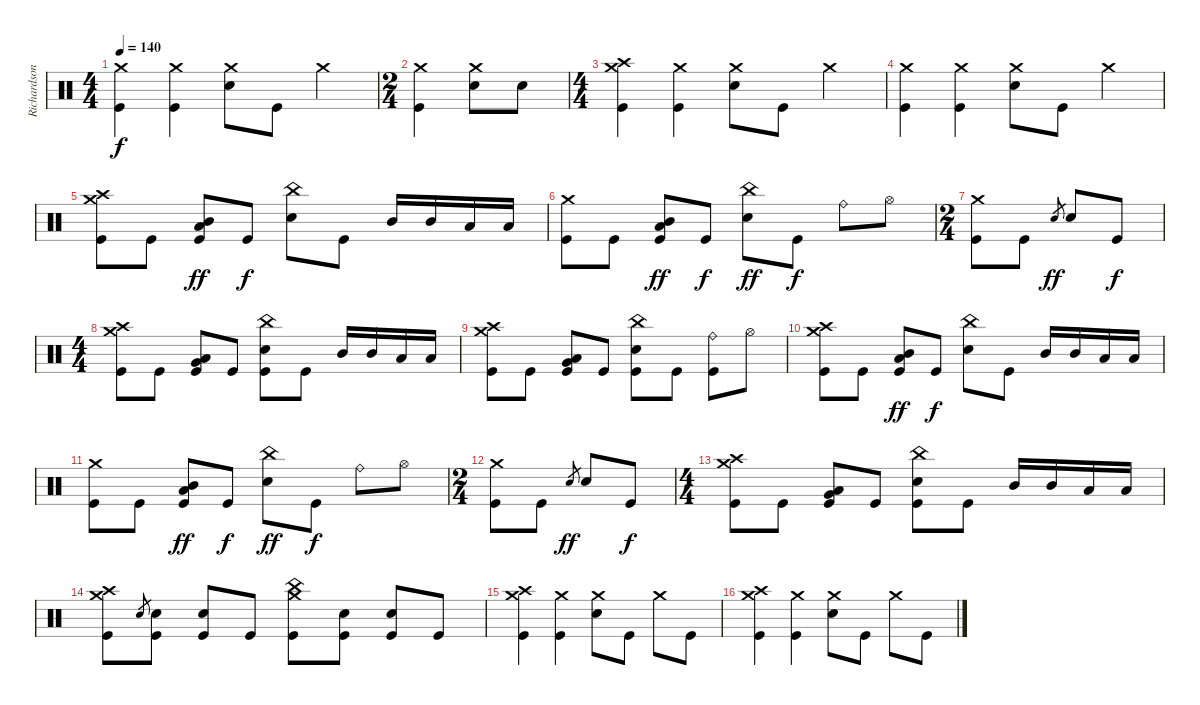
\track ("Richardson" "Richardson") {instrument percussion}
\staff {score}
\articulation defaults
\ts (4 4)
\tempo 140
\clef neutral
\ks c
("Crash medium (hit)" "Kick (hit)").4{dy f} ("Crash medium (hit)" "Kick (hit)").4 ("Crash medium (hit)" "Electric Snare (hit)").8 "Kick (hit)".8 "Crash medium (hit)".4 |
\ts (2 4)
("Crash medium (hit)" "Kick (hit)").4 ("Crash medium (hit)" "Electric Snare (hit)").8 "Electric Snare (hit)".8 |
\ts (4 4)
("Crash high (hit)" "Crash medium (hit)" "Kick (hit)").4 ("Crash medium (hit)" "Kick (hit)").4 ("Crash medium (hit)" "Electric Snare (hit)").8 "Kick (hit)".8 "Crash medium (hit)".4 |
("Crash medium (hit)" "Kick (hit)").4 ("Crash medium (hit)" "Kick (hit)").4 ("Crash medium (hit)" "Electric Snare (hit)").8 "Kick (hit)".8 "Crash medium (hit)".4 |
("Crash high (hit)" "Crash medium (hit)" "Kick (hit)").8 "Kick (hit)".8 ("Mid Tom (hit)" "Low Tom (hit)" "Kick (hit)").8{dy ff} "Kick (hit)".8{dy f} ("China (hit)" "Electric Snare (hit)").8 "Kick (hit)".8 "Mid Tom (hit)".16 "Mid Tom (hit)".16 "Low Tom (hit)".16 "Low Tom (hit)".16 |
("Crash medium (hit)" "Kick (hit)").8 "Kick (hit)".8 ("Mid Tom (hit)" "Low Tom (hit)" "Kick (hit)").8{dy ff} "Kick (hit)".8{dy f} ("China (hit)" "Electric Snare (hit)").8{dy ff} "Kick (hit)".8{dy f} "Ride (bell)".8 "Hi-Hat (open)".8 |
\ts (2 4)
("Crash medium (hit)" "Kick (hit)").8 "Kick (hit)".8 "Electric Snare (hit)".8{gr dy ff} "Electric Snare (hit)".8 "Kick (hit)".8{dy f} |
\ts (4 4)
("Crash high (hit)" "Crash medium (hit)" "Kick (hit)").8 "Kick (hit)".8 ("Low Tom (hit)" "Very Low Tom (hit)" "Kick (hit)").8 "Kick (hit)".8 ("China (hit)" "Electric Snare (hit)" "Kick (hit)").8 "Kick (hit)".8 "Mid Tom (hit)".16 "Mid Tom (hit)".16 "Low Tom (hit)".16 "Low Tom (hit)".16 |
("Crash high (hit)" "Crash medium (hit)" "Kick (hit)").8 "Kick (hit)".8 ("Low Tom (hit)" "Very Low Tom (hit)" "Kick (hit)").8 "Kick (hit)".8 ("China (hit)" "Electric Snare (hit)" "Kick (hit)").8 "Kick (hit)".8 ("Ride (bell)" "Kick (hit)").8 "Hi-Hat (open)".8 |
("Crash high (hit)" "Crash medium (hit)" "Kick (hit)").8 "Kick (hit)".8 ("Mid Tom (hit)" "Low Tom (hit)" "Kick (hit)").8{dy ff} "Kick (hit)".8{dy f} ("China (hit)" "Electric Snare (hit)").8 "Kick (hit)".8 "Mid Tom (hit)".16 "Mid Tom (hit)".16 "Low Tom (hit)".16 "Low Tom (hit)".16 |
("Crash medium (hit)" "Kick (hit)").8 "Kick (hit)".8 ("Mid Tom (hit)" "Low Tom (hit)" "Kick (hit)").8{dy ff} "Kick (hit)".8{dy f} ("China (hit)" "Electric Snare (hit)").8{dy ff} "Kick (hit)".8{dy f} "Ride (bell)".8 "Hi-Hat (open)".8 |
\ts (2 4)
("Crash medium (hit)" "Kick (hit)").8 "Kick (hit)".8 "Electric Snare (hit)".8{gr dy ff} "Electric Snare (hit)".8 "Kick (hit)".8{dy f} |
\ts (4 4)
("Crash high (hit)" "Crash medium (hit)" "Kick (hit)").8 "Kick (hit)".8 ("Low Tom (hit)" "Very Low Tom (hit)" "Kick (hit)").8 "Kick (hit)".8 ("China (hit)" "Electric Snare (hit)" "Kick (hit)").8 "Kick (hit)".8 "Mid Tom (hit)".16 "Mid Tom (hit)".16 "Low Tom (hit)".16 "Low Tom (hit)".16 |
("Crash high (hit)" "Crash medium (hit)" "Kick (hit)").8 "Electric Snare (hit)".8{gr} ("Electric Snare (hit)" "Kick (hit)").8 ("Electric Snare (hit)" "Kick (hit)").8 "Kick (hit)".8 ("China (hit)" "Crash medium (hit)" "Kick (hit)").8 ("Electric Snare (hit)" "Kick (hit)").8 ("Electric Snare (hit)" "Kick (hit)").8 "Kick (hit)".8 |
("Crash medium (hit)" "Crash high (hit)" "Kick (hit)").4 ("Crash medium (hit)" "Kick (hit)").4 ("Crash medium (hit)" "Electric Snare (hit)").8 "Kick (hit)".8 "Crash medium (hit)".8 "Kick (hit)".8 |
("Crash medium (hit)" "Crash high (hit)" "Kick (hit)").4 ("Crash medium (hit)" "Kick (hit)").4 ("Crash medium (hit)" "Electric Snare (hit)").8 "Kick (hit)".8 "Crash medium (hit)".8 "Kick (hit)".8
